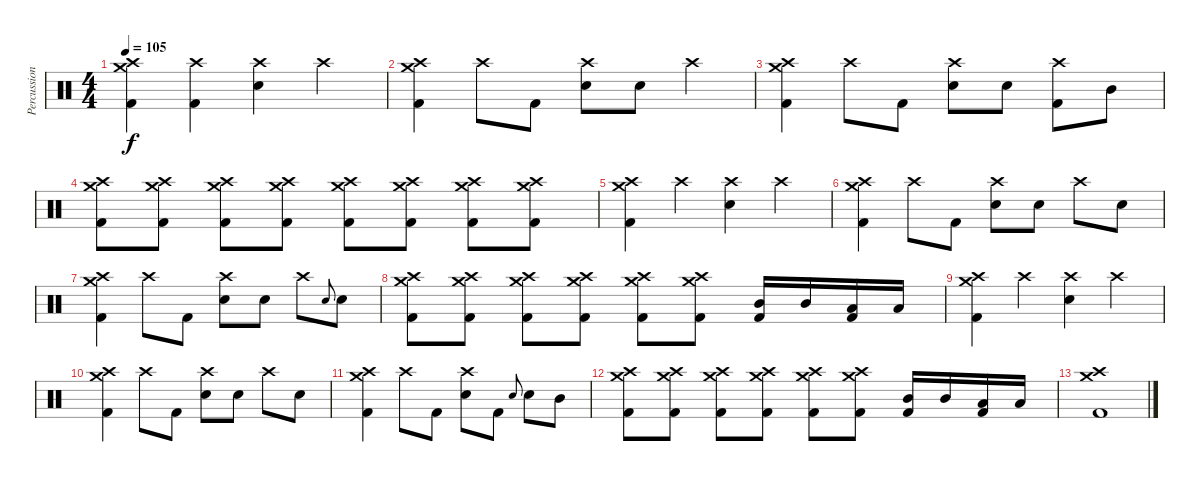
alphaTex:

\track ("Percussion" "Percussion") {instrument percussion}
\staff {score}
\articulation defaults
\ts (4 4)
\tempo 105
\clef neutral
\ks c
("Crash high (hit)" "Crash medium (hit)" "Kick (hit) 2").4{dy f} ("Crash high (hit)" "Kick (hit) 2").4 ("Crash high (hit)" "Electric Snare (hit)").4 "Crash high (hit)".4 |
("Crash high (hit)" "Crash medium (hit)" "Kick (hit) 2").4 "Crash high (hit)".8 "Kick (hit) 2".8 ("Crash high (hit)" "Electric Snare (hit)").8 "Electric Snare (hit)".8 "Crash high (hit)".4 |
("Crash medium (hit)" "Crash high (hit)" "Kick (hit) 2").4 "Crash high (hit)".8 "Kick (hit) 2".8 ("Crash high (hit)" "Electric Snare (hit)").8 "Electric Snare (hit)".8 ("Crash high (hit)" "Kick (hit) 2").8 "Mid Tom (hit)".8 |
("Crash high (hit)" "Crash medium (hit)" "Kick (hit) 2").8 ("Crash high (hit)" "Crash medium (hit)" "Kick (hit) 2").8 ("Crash high (hit)" "Crash medium (hit)" "Kick (hit) 2").8 ("Crash high (hit)" "Crash medium (hit)" "Kick (hit) 2").8 ("Crash high (hit)" "Crash medium (hit)" "Kick (hit) 2").8 ("Crash high (hit)" "Crash medium (hit)" "Kick (hit) 2").8 ("Crash high (hit)" "Crash medium (hit)" "Kick (hit) 2").8 ("Crash high (hit)" "Crash medium (hit)" "Kick (hit) 2").8 |
("Crash high (hit)" "Crash medium (hit)" "Kick (hit) 2").4 "Crash high (hit)".4 ("Crash high (hit)" "Electric Snare (hit)").4 "Crash high (hit)".4 |
("Crash high (hit)" "Crash medium (hit)" "Kick (hit) 2").4 "Crash high (hit)".8 "Kick (hit) 2".8 ("Crash high (hit)" "Electric Snare (hit)").8 "Electric Snare (hit)".8 "Crash high (hit)".8 "Electric Snare (hit)".8 |
("Crash high (hit)" "Crash medium (hit)" "Kick (hit) 2").4 "Crash high (hit)".8 "Kick (hit) 2".8 ("Crash high (hit)" "Electric Snare (hit)").8 "Electric Snare (hit)".8 "Crash high (hit)".8 "Electric Snare (hit)".8{gr onbeat} "Electric Snare (hit)".8 |
("Crash high (hit)" "Crash medium (hit)" "Kick (hit) 2").8 ("Crash high (hit)" "Crash medium (hit)" "Kick (hit) 2").8 ("Crash high (hit)" "Crash medium (hit)" "Kick (hit) 2").8 ("Crash high (hit)" "Crash medium (hit)" "Kick (hit) 2").8 ("Crash high (hit)" "Crash medium (hit)" "Kick (hit) 2").8 ("Crash high (hit)" "Crash medium (hit)" "Kick (hit) 2").8 ("Mid Tom (hit)" "Kick (hit) 2").16 "Mid Tom (hit)".16 ("Low Tom (hit)" "Kick (hit) 2").16 "Low Tom (hit)".16 |
("Crash high (hit)" "Crash medium (hit)" "Kick (hit) 2").4 "Crash high (hit)".4 ("Crash high (hit)" "Electric Snare (hit)").4 "Crash high (hit)".4 |
("Crash high (hit)" "Crash medium (hit)" "Kick (hit) 2").4 "Crash high (hit)".8 "Kick (hit) 2".8 ("Crash high (hit)" "Electric Snare (hit)").8 "Electric Snare (hit)".8 "Crash high (hit)".8 "Electric Snare (hit)".8 |
("Crash high (hit)" "Crash medium (hit)" "Kick (hit) 2").4 "Crash high (hit)".8 "Kick (hit) 2".8 ("Crash high (hit)" "Electric Snare (hit)").8 "Kick (hit) 2".8 "Electric Snare (hit)".8{gr onbeat} "Electric Snare (hit)".8 "Mid Tom (hit)".8 |
("Crash high (hit)" "Crash medium (hit)" "Kick (hit) 2").8 ("Crash high (hit)" "Crash medium (hit)" "Kick (hit) 2").8 ("Crash high (hit)" "Crash medium (hit)" "Kick (hit) 2").8 ("Crash high (hit)" "Crash medium (hit)" "Kick (hit) 2").8 ("Crash high (hit)" "Crash medium (hit)" "Kick (hit) 2").8 ("Crash high (hit)" "Crash medium (hit)" "Kick (hit) 2").8 ("Mid Tom (hit)" "Kick (hit) 2").16 "Mid Tom (hit)".16 ("Low Tom (hit)" "Kick (hit) 2").16 "Low Tom (hit)".16 |
("Crash high (hit)" "Crash medium (hit)" "Kick (hit) 2").1
